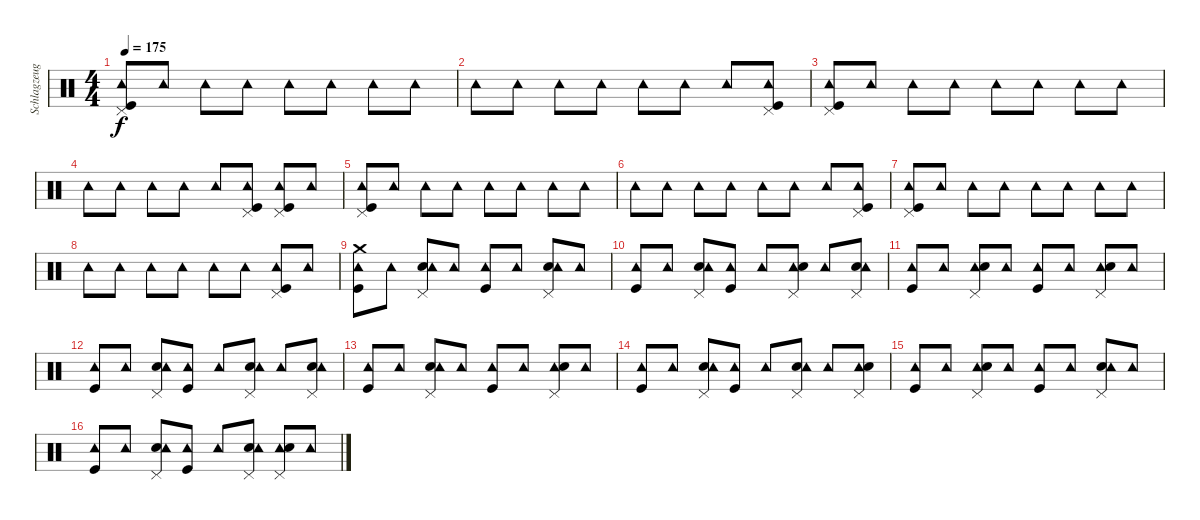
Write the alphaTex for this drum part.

\track ("Schlagzeug - Bela B." "Schlagzeug") {instrument percussion}
\staff {score}
\articulation defaults
\ts (4 4)
\tempo 175
\clef neutral
\ks c
("Pedal Hi-Hat (hit)" "Tambourine (hit)" "Kick (hit)").8{dy f} "Tambourine (hit)".8 "Tambourine (hit)".8 "Tambourine (hit)".8 "Tambourine (hit)".8 "Tambourine (hit)".8 "Tambourine (hit)".8 "Tambourine (hit)".8 |
"Tambourine (hit)".8 "Tambourine (hit)".8 "Tambourine (hit)".8 "Tambourine (hit)".8 "Tambourine (hit)".8 "Tambourine (hit)".8 "Tambourine (hit)".8 ("Tambourine (hit)" "Pedal Hi-Hat (hit)" "Kick (hit)").8 |
("Pedal Hi-Hat (hit)" "Tambourine (hit)" "Kick (hit)").8 "Tambourine (hit)".8 "Tambourine (hit)".8 "Tambourine (hit)".8 "Tambourine (hit)".8 "Tambourine (hit)".8 "Tambourine (hit)".8 "Tambourine (hit)".8 |
"Tambourine (hit)".8 "Tambourine (hit)".8 "Tambourine (hit)".8 "Tambourine (hit)".8 "Tambourine (hit)".8 ("Pedal Hi-Hat (hit)" "Tambourine (hit)" "Kick (hit)").8 ("Tambourine (hit)" "Pedal Hi-Hat (hit)" "Kick (hit)").8 "Tambourine (hit)".8 |
("Pedal Hi-Hat (hit)" "Tambourine (hit)" "Kick (hit)").8 "Tambourine (hit)".8 "Tambourine (hit)".8 "Tambourine (hit)".8 "Tambourine (hit)".8 "Tambourine (hit)".8 "Tambourine (hit)".8 "Tambourine (hit)".8 |
"Tambourine (hit)".8 "Tambourine (hit)".8 "Tambourine (hit)".8 "Tambourine (hit)".8 "Tambourine (hit)".8 "Tambourine (hit)".8 "Tambourine (hit)".8 ("Pedal Hi-Hat (hit)" "Tambourine (hit)" "Kick (hit)").8 |
("Pedal Hi-Hat (hit)" "Tambourine (hit)" "Kick (hit)").8 "Tambourine (hit)".8 "Tambourine (hit)".8 "Tambourine (hit)".8 "Tambourine (hit)".8 "Tambourine (hit)".8 "Tambourine (hit)".8 "Tambourine (hit)".8 |
"Tambourine (hit)".8 "Tambourine (hit)".8 "Tambourine (hit)".8 "Tambourine (hit)".8 "Tambourine (hit)".8 "Tambourine (hit)".8 ("Pedal Hi-Hat (hit)" "Tambourine (hit)" "Kick (hit)").8 "Tambourine (hit)".8 |
("Tambourine (hit)" "Kick (hit)" "Crash medium (hit)").8 "Tambourine (hit)".8 ("Pedal Hi-Hat (hit)" "Electric Snare (hit)" "Tambourine (hit)").8 "Tambourine (hit)".8 ("Tambourine (hit)" "Kick (hit)").8 "Tambourine (hit)".8 ("Pedal Hi-Hat (hit)" "Electric Snare (hit)" "Tambourine (hit)").8 "Tambourine (hit)".8 |
("Tambourine (hit)" "Kick (hit)").8 "Tambourine (hit)".8 ("Pedal Hi-Hat (hit)" "Electric Snare (hit)" "Tambourine (hit)").8 ("Tambourine (hit)" "Kick (hit)").8 "Tambourine (hit)".8 ("Pedal Hi-Hat (hit)" "Tambourine (hit)" "Electric Snare (hit)").8 "Tambourine (hit)".8 ("Pedal Hi-Hat (hit)" "Electric Snare (hit)" "Tambourine (hit)").8 |
("Tambourine (hit)" "Kick (hit)").8 "Tambourine (hit)".8 ("Tambourine (hit)" "Electric Snare (hit)" "Pedal Hi-Hat (hit)").8 "Tambourine (hit)".8 ("Tambourine (hit)" "Kick (hit)").8 "Tambourine (hit)".8 ("Pedal Hi-Hat (hit)" "Tambourine (hit)" "Electric Snare (hit)").8 "Tambourine (hit)".8 |
("Tambourine (hit)" "Kick (hit)").8 "Tambourine (hit)".8 ("Pedal Hi-Hat (hit)" "Electric Snare (hit)" "Tambourine (hit)").8 ("Tambourine (hit)" "Kick (hit)").8 "Tambourine (hit)".8 ("Pedal Hi-Hat (hit)" "Electric Snare (hit)" "Tambourine (hit)").8 "Tambourine (hit)".8 ("Pedal Hi-Hat (hit)" "Electric Snare (hit)" "Tambourine (hit)").8 |
("Tambourine (hit)" "Kick (hit)").8 "Tambourine (hit)".8 ("Electric Snare (hit)" "Tambourine (hit)" "Pedal Hi-Hat (hit)").8 "Tambourine (hit)".8 ("Tambourine (hit)" "Kick (hit)").8 "Tambourine (hit)".8 ("Pedal Hi-Hat (hit)" "Tambourine (hit)" "Electric Snare (hit)").8 "Tambourine (hit)".8 |
("Tambourine (hit)" "Kick (hit)").8 "Tambourine (hit)".8 ("Electric Snare (hit)" "Tambourine (hit)" "Pedal Hi-Hat (hit)").8 ("Tambourine (hit)" "Kick (hit)").8 "Tambourine (hit)".8 ("Electric Snare (hit)" "Pedal Hi-Hat (hit)" "Tambourine (hit)").8 "Tambourine (hit)".8 ("Tambourine (hit)" "Pedal Hi-Hat (hit)" "Electric Snare (hit)").8 |
("Tambourine (hit)" "Kick (hit)").8 "Tambourine (hit)".8 ("Tambourine (hit)" "Electric Snare (hit)" "Pedal Hi-Hat (hit)").8 "Tambourine (hit)".8 ("Tambourine (hit)" "Kick (hit)").8 "Tambourine (hit)".8 ("Pedal Hi-Hat (hit)" "Electric Snare (hit)" "Tambourine (hit)").8 "Tambourine (hit)".8 |
("Tambourine (hit)" "Kick (hit)").8 "Tambourine (hit)".8 ("Electric Snare (hit)" "Pedal Hi-Hat (hit)" "Tambourine (hit)").8 ("Tambourine (hit)" "Kick (hit)").8 "Tambourine (hit)".8 ("Electric Snare (hit)" "Pedal Hi-Hat (hit)" "Tambourine (hit)").8 ("Tambourine (hit)" "Electric Snare (hit)" "Pedal Hi-Hat (hit)").8 "Tambourine (hit)".8
